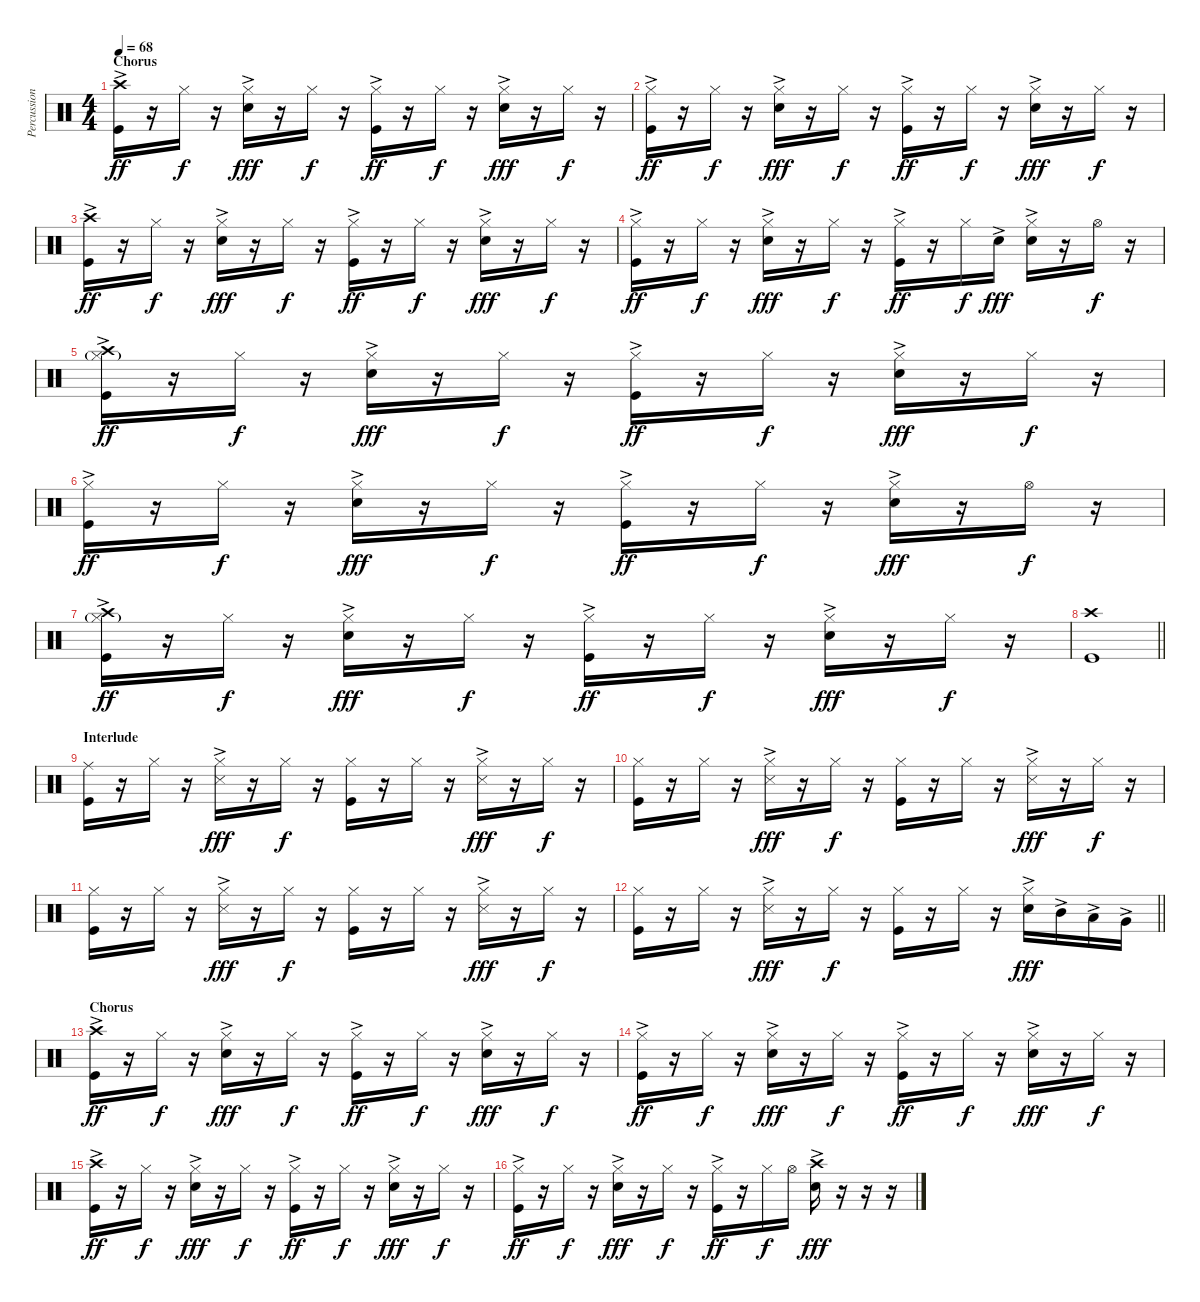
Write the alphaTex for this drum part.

\track ("Percussion" "Percussion") {instrument percussion}
\staff {score}
\articulation defaults
\ts (4 4)
\section ("" "Chorus")
\tempo 68
\clef neutral
\ks c
("Crash high (hit)" "Kick (hit)"{ac}).16{dy ff} r.16 "Hi-Hat (closed)".16{dy f} r.16 ("Hi-Hat (closed)" "Snare (hit) 2"{ac}).16{dy fff} r.16 "Hi-Hat (closed)".16{dy f} r.16 ("Hi-Hat (closed)" "Kick (hit)"{ac}).16{dy ff} r.16 "Hi-Hat (closed)".16{dy f} r.16 ("Hi-Hat (closed)" "Snare (hit) 2"{ac}).16{dy fff} r.16 "Hi-Hat (closed)".16{dy f} r.16 |
("Hi-Hat (closed)" "Kick (hit)"{ac}).16{dy ff} r.16 "Hi-Hat (closed)".16{dy f} r.16 ("Hi-Hat (closed)" "Snare (hit) 2"{ac}).16{dy fff} r.16 "Hi-Hat (closed)".16{dy f} r.16 ("Hi-Hat (closed)" "Kick (hit)"{ac}).16{dy ff} r.16 "Hi-Hat (closed)".16{dy f} r.16 ("Hi-Hat (closed)" "Snare (hit) 2"{ac}).16{dy fff} r.16 "Hi-Hat (closed)".16{dy f} r.16 |
("Crash high (hit)" "Kick (hit)"{ac}).16{dy ff} r.16 "Hi-Hat (closed)".16{dy f} r.16 ("Hi-Hat (closed)" "Snare (hit) 2"{ac}).16{dy fff} r.16 "Hi-Hat (closed)".16{dy f} r.16 ("Hi-Hat (closed)" "Kick (hit)"{ac}).16{dy ff} r.16 "Hi-Hat (closed)".16{dy f} r.16 ("Hi-Hat (closed)" "Snare (hit) 2"{ac}).16{dy fff} r.16 "Hi-Hat (closed)".16{dy f} r.16 |
("Hi-Hat (closed)" "Kick (hit)"{ac}).16{dy ff} r.16 "Hi-Hat (closed)".16{dy f} r.16 ("Hi-Hat (closed)" "Snare (hit) 2"{ac}).16{dy fff} r.16 "Hi-Hat (closed)".16{dy f} r.16 ("Hi-Hat (closed)" "Kick (hit)"{ac}).16{dy ff} r.16 "Hi-Hat (closed)".16{dy f} "Snare (hit) 2"{ac}.16{dy fff} ("Hi-Hat (closed)" "Snare (hit) 2"{ac}).16 r.16 "Hi-Hat (open)".16{dy f} r.16 |
("Crash high (hit)" "Hi-Hat (closed)"{g} "Kick (hit)"{ac}).16{dy ff} r.16 "Hi-Hat (closed)".16{dy f} r.16 ("Hi-Hat (closed)" "Snare (hit) 2"{ac}).16{dy fff} r.16 "Hi-Hat (closed)".16{dy f} r.16 ("Hi-Hat (closed)" "Kick (hit)"{ac}).16{dy ff} r.16 "Hi-Hat (closed)".16{dy f} r.16 ("Hi-Hat (closed)" "Snare (hit) 2"{ac}).16{dy fff} r.16 "Hi-Hat (closed)".16{dy f} r.16 |
("Hi-Hat (closed)" "Kick (hit)"{ac}).16{dy ff} r.16 "Hi-Hat (closed)".16{dy f} r.16 ("Hi-Hat (closed)" "Snare (hit) 2"{ac}).16{dy fff} r.16 "Hi-Hat (closed)".16{dy f} r.16 ("Hi-Hat (closed)" "Kick (hit)"{ac}).16{dy ff} r.16 "Hi-Hat (closed)".16{dy f} r.16 ("Hi-Hat (closed)" "Snare (hit) 2"{ac}).16{dy fff} r.16 "Hi-Hat (open)".16{dy f} r.16 |
("Crash high (hit)" "Hi-Hat (closed)"{g} "Kick (hit)"{ac}).16{dy ff} r.16 "Hi-Hat (closed)".16{dy f} r.16 ("Hi-Hat (closed)" "Snare (hit) 2"{ac}).16{dy fff} r.16 "Hi-Hat (closed)".16{dy f} r.16 ("Hi-Hat (closed)" "Kick (hit)"{ac}).16{dy ff} r.16 "Hi-Hat (closed)".16{dy f} r.16 ("Hi-Hat (closed)" "Snare (hit) 2"{ac}).16{dy fff} r.16 "Hi-Hat (closed)".16{dy f} r.16 |
\barLineRight lightlight
("Crash high (hit)" "Kick (hit)").1 |
\section ("" "Interlude")
("Ride (middle)" "Kick (hit)").16 r.16 "Hi-Hat (closed)".16 r.16 ("Hi-Hat (closed)" "Snare (side stick) 3"{ac}).16{dy fff} r.16 "Hi-Hat (closed)".16{dy f} r.16 ("Hi-Hat (closed)" "Kick (hit)").16 r.16 "Hi-Hat (closed)".16 r.16 ("Hi-Hat (closed)" "Snare (side stick) 3"{ac}).16{dy fff} r.16 "Hi-Hat (closed)".16{dy f} r.16 |
("Hi-Hat (closed)" "Kick (hit)").16 r.16 "Hi-Hat (closed)".16 r.16 ("Hi-Hat (closed)" "Snare (side stick) 3"{ac}).16{dy fff} r.16 "Hi-Hat (closed)".16{dy f} r.16 ("Hi-Hat (closed)" "Kick (hit)").16 r.16 "Hi-Hat (closed)".16 r.16 ("Hi-Hat (closed)" "Snare (side stick) 3"{ac}).16{dy fff} r.16 "Hi-Hat (closed)".16{dy f} r.16 |
("Hi-Hat (closed)" "Kick (hit)").16 r.16 "Hi-Hat (closed)".16 r.16 ("Hi-Hat (closed)" "Snare (side stick) 3"{ac}).16{dy fff} r.16 "Hi-Hat (closed)".16{dy f} r.16 ("Hi-Hat (closed)" "Kick (hit)").16 r.16 "Hi-Hat (closed)".16 r.16 ("Hi-Hat (closed)" "Snare (side stick) 3"{ac}).16{dy fff} r.16 "Hi-Hat (closed)".16{dy f} r.16 |
\barLineRight lightlight
("Hi-Hat (closed)" "Kick (hit)").16 r.16 "Hi-Hat (closed)".16 r.16 ("Hi-Hat (closed)" "Snare (side stick) 3"{ac}).16{dy fff} r.16 "Hi-Hat (closed)".16{dy f} r.16 ("Hi-Hat (closed)" "Kick (hit)").16 r.16 "Hi-Hat (closed)".16 r.16 ("Hi-Hat (closed)" "Snare (hit) 2"{ac}).16{dy fff} "Mid Tom (hit)"{ac}.16 "Low Tom (hit)"{ac}.16 "Very Low Tom (hit)"{ac}.16 |
\section ("" "Chorus")
("Crash high (hit)" "Kick (hit)"{ac}).16{dy ff} r.16 "Hi-Hat (closed)".16{dy f} r.16 ("Hi-Hat (closed)" "Snare (hit) 2"{ac}).16{dy fff} r.16 "Hi-Hat (closed)".16{dy f} r.16 ("Hi-Hat (closed)" "Kick (hit)"{ac}).16{dy ff} r.16 "Hi-Hat (closed)".16{dy f} r.16 ("Hi-Hat (closed)" "Snare (hit) 2"{ac}).16{dy fff} r.16 "Hi-Hat (closed)".16{dy f} r.16 |
("Hi-Hat (closed)" "Kick (hit)"{ac}).16{dy ff} r.16 "Hi-Hat (closed)".16{dy f} r.16 ("Hi-Hat (closed)" "Snare (hit) 2"{ac}).16{dy fff} r.16 "Hi-Hat (closed)".16{dy f} r.16 ("Hi-Hat (closed)" "Kick (hit)"{ac}).16{dy ff} r.16 "Hi-Hat (closed)".16{dy f} r.16 ("Hi-Hat (closed)" "Snare (hit) 2"{ac}).16{dy fff} r.16 "Hi-Hat (closed)".16{dy f} r.16 |
("Crash high (hit)" "Kick (hit)"{ac}).16{dy ff} r.16 "Hi-Hat (closed)".16{dy f} r.16 ("Hi-Hat (closed)" "Snare (hit) 2"{ac}).16{dy fff} r.16 "Hi-Hat (closed)".16{dy f} r.16 ("Hi-Hat (closed)" "Kick (hit)"{ac}).16{dy ff} r.16 "Hi-Hat (closed)".16{dy f} r.16 ("Hi-Hat (closed)" "Snare (hit) 2"{ac}).16{dy fff} r.16 "Hi-Hat (closed)".16{dy f} r.16 |
("Hi-Hat (closed)" "Kick (hit)"{ac}).16{dy ff} r.16 "Hi-Hat (closed)".16{dy f} r.16 ("Hi-Hat (closed)" "Snare (hit) 2"{ac}).16{dy fff} r.16 "Hi-Hat (closed)".16{dy f} r.16 ("Hi-Hat (closed)" "Kick (hit)"{ac}).16{dy ff} r.16 "Hi-Hat (closed)".16{dy f} "Hi-Hat (open)".16 ("Crash high (hit)" "Snare (hit) 2"{ac}).16{dy fff} r.16 r.16 r.16
